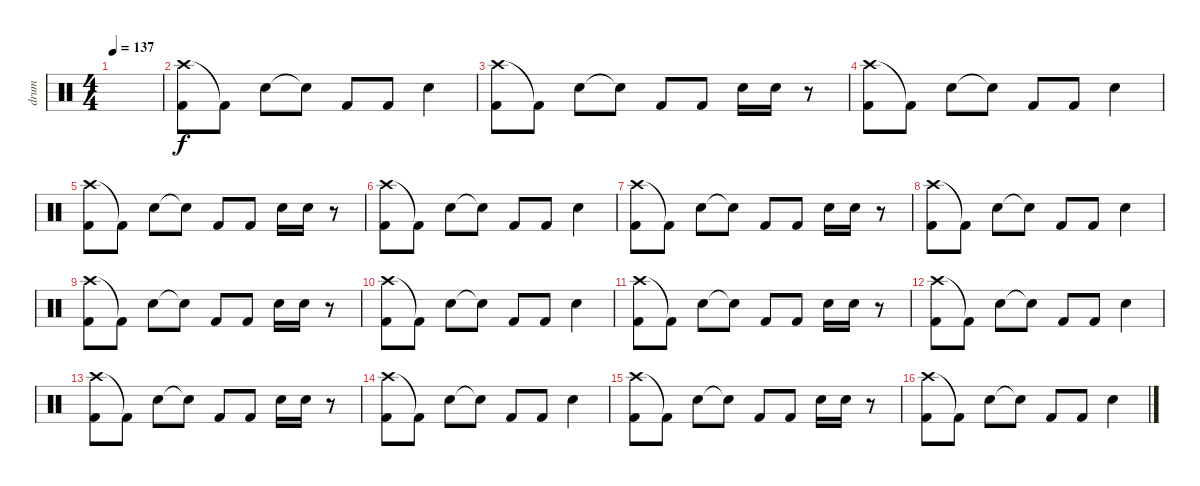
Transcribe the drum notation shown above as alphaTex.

\track ("drum" "drum") {instrument percussion}
\staff {score}
\articulation defaults
\ts (4 4)
\tempo 137
\clef neutral
\ks c
|
("Crash high (hit)" "Kick (hit) 2").8 "Kick (hit) 2"{t}.8 "Electric Snare (hit)".8 "Snare (hit)"{t}.8 "Kick (hit) 2".8 "Kick (hit) 2".8 "Electric Snare (hit)".4 |
("Crash high (hit)" "Kick (hit) 2").8 "Kick (hit) 2"{t}.8 "Electric Snare (hit)".8 "Snare (hit)"{t}.8 "Kick (hit) 2".8 "Kick (hit) 2".8 "Electric Snare (hit)".16 "Electric Snare (hit)".16 r.8 |
("Crash high (hit)" "Kick (hit) 2").8 "Kick (hit) 2"{t}.8 "Electric Snare (hit)".8 "Snare (hit)"{t}.8 "Kick (hit) 2".8 "Kick (hit) 2".8 "Electric Snare (hit)".4 |
("Crash high (hit)" "Kick (hit) 2").8 "Kick (hit) 2"{t}.8 "Electric Snare (hit)".8 "Snare (hit)"{t}.8 "Kick (hit) 2".8 "Kick (hit) 2".8 "Electric Snare (hit)".16 "Electric Snare (hit)".16 r.8 |
("Crash high (hit)" "Kick (hit) 2").8 "Kick (hit) 2"{t}.8 "Electric Snare (hit)".8 "Snare (hit)"{t}.8 "Kick (hit) 2".8 "Kick (hit) 2".8 "Electric Snare (hit)".4 |
("Crash high (hit)" "Kick (hit) 2").8 "Kick (hit) 2"{t}.8 "Electric Snare (hit)".8 "Snare (hit)"{t}.8 "Kick (hit) 2".8 "Kick (hit) 2".8 "Electric Snare (hit)".16 "Electric Snare (hit)".16 r.8 |
("Crash high (hit)" "Kick (hit) 2").8 "Kick (hit) 2"{t}.8 "Electric Snare (hit)".8 "Snare (hit)"{t}.8 "Kick (hit) 2".8 "Kick (hit) 2".8 "Electric Snare (hit)".4 |
("Crash high (hit)" "Kick (hit) 2").8 "Kick (hit) 2"{t}.8 "Electric Snare (hit)".8 "Snare (hit)"{t}.8 "Kick (hit) 2".8 "Kick (hit) 2".8 "Electric Snare (hit)".16 "Electric Snare (hit)".16 r.8 |
("Crash high (hit)" "Kick (hit) 2").8 "Kick (hit) 2"{t}.8 "Electric Snare (hit)".8 "Snare (hit)"{t}.8 "Kick (hit) 2".8 "Kick (hit) 2".8 "Electric Snare (hit)".4 |
("Crash high (hit)" "Kick (hit) 2").8 "Kick (hit) 2"{t}.8 "Electric Snare (hit)".8 "Snare (hit)"{t}.8 "Kick (hit) 2".8 "Kick (hit) 2".8 "Electric Snare (hit)".16 "Electric Snare (hit)".16 r.8 |
("Crash high (hit)" "Kick (hit) 2").8 "Kick (hit) 2"{t}.8 "Electric Snare (hit)".8 "Snare (hit)"{t}.8 "Kick (hit) 2".8 "Kick (hit) 2".8 "Electric Snare (hit)".4 |
("Crash high (hit)" "Kick (hit) 2").8 "Kick (hit) 2"{t}.8 "Electric Snare (hit)".8 "Snare (hit)"{t}.8 "Kick (hit) 2".8 "Kick (hit) 2".8 "Electric Snare (hit)".16 "Electric Snare (hit)".16 r.8 |
("Crash high (hit)" "Kick (hit) 2").8 "Kick (hit) 2"{t}.8 "Electric Snare (hit)".8 "Snare (hit)"{t}.8 "Kick (hit) 2".8 "Kick (hit) 2".8 "Electric Snare (hit)".4 |
("Crash high (hit)" "Kick (hit) 2").8 "Kick (hit) 2"{t}.8 "Electric Snare (hit)".8 "Snare (hit)"{t}.8 "Kick (hit) 2".8 "Kick (hit) 2".8 "Electric Snare (hit)".16 "Electric Snare (hit)".16 r.8 |
("Crash high (hit)" "Kick (hit) 2").8 "Kick (hit) 2"{t}.8 "Electric Snare (hit)".8 "Snare (hit)"{t}.8 "Kick (hit) 2".8 "Kick (hit) 2".8 "Electric Snare (hit)".4
